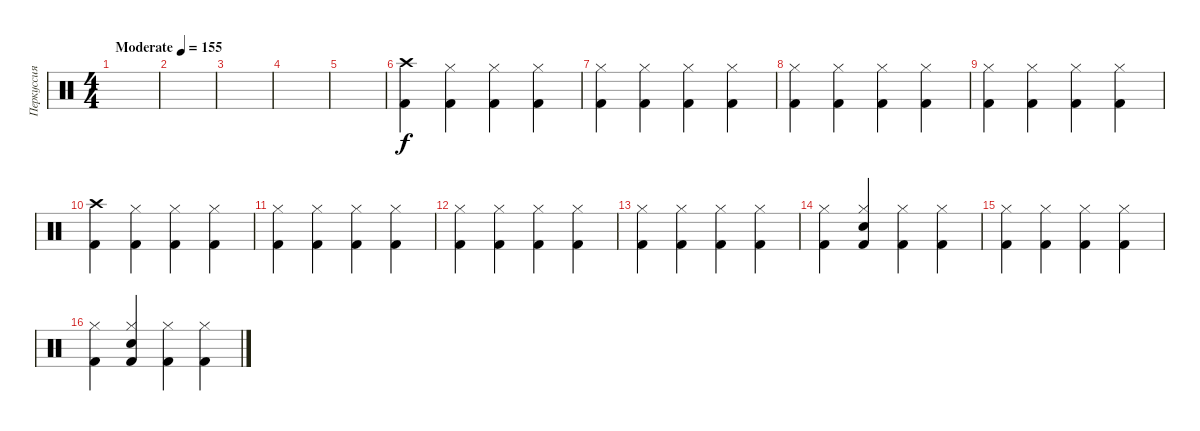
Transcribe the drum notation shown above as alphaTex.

\track ("Перкуссия" "Перкуссия") {instrument percussion}
\staff {score}
\articulation defaults
\ts (4 4)
\tempo (155 "Moderate")
\clef neutral
\ks c
|
|
|
|
|
("Crash high (hit)" "Kick (hit) 2").4 ("Hi-Hat (closed)" "Kick (hit) 2").4 ("Hi-Hat (closed)" "Kick (hit) 2").4 ("Hi-Hat (closed)" "Kick (hit) 2").4 |
("Hi-Hat (closed)" "Kick (hit) 2").4 ("Hi-Hat (closed)" "Kick (hit) 2").4 ("Hi-Hat (closed)" "Kick (hit) 2").4 ("Hi-Hat (closed)" "Kick (hit) 2").4 |
("Hi-Hat (closed)" "Kick (hit) 2").4 ("Hi-Hat (closed)" "Kick (hit) 2").4 ("Hi-Hat (closed)" "Kick (hit) 2").4 ("Hi-Hat (closed)" "Kick (hit) 2").4 |
("Hi-Hat (closed)" "Kick (hit) 2").4 ("Hi-Hat (closed)" "Kick (hit) 2").4 ("Hi-Hat (closed)" "Kick (hit) 2").4 ("Hi-Hat (closed)" "Kick (hit) 2").4 |
("Crash high (hit)" "Kick (hit) 2").4 ("Hi-Hat (closed)" "Kick (hit) 2").4 ("Hi-Hat (closed)" "Kick (hit) 2").4 ("Hi-Hat (closed)" "Kick (hit) 2").4 |
("Hi-Hat (closed)" "Kick (hit) 2").4 ("Hi-Hat (closed)" "Kick (hit) 2").4 ("Hi-Hat (closed)" "Kick (hit) 2").4 ("Hi-Hat (closed)" "Kick (hit) 2").4 |
("Hi-Hat (closed)" "Kick (hit) 2").4 ("Hi-Hat (closed)" "Kick (hit) 2").4 ("Hi-Hat (closed)" "Kick (hit) 2").4 ("Hi-Hat (closed)" "Kick (hit) 2").4 |
("Hi-Hat (closed)" "Kick (hit) 2").4 ("Hi-Hat (closed)" "Kick (hit) 2").4 ("Hi-Hat (closed)" "Kick (hit) 2").4 ("Hi-Hat (closed)" "Kick (hit) 2").4 |
("Hi-Hat (closed)" "Kick (hit) 2").4 ("Hi-Hat (closed)" "Snare (hit) 2" "Kick (hit) 2").4 ("Hi-Hat (closed)" "Kick (hit) 2").4 ("Hi-Hat (closed)" "Kick (hit) 2").4 |
("Hi-Hat (closed)" "Kick (hit) 2").4 ("Hi-Hat (closed)" "Kick (hit) 2").4 ("Hi-Hat (closed)" "Kick (hit) 2").4 ("Hi-Hat (closed)" "Kick (hit) 2").4 |
("Hi-Hat (closed)" "Kick (hit) 2").4 ("Hi-Hat (closed)" "Snare (hit) 2" "Kick (hit) 2").4 ("Hi-Hat (closed)" "Kick (hit) 2").4 ("Hi-Hat (closed)" "Kick (hit) 2").4
